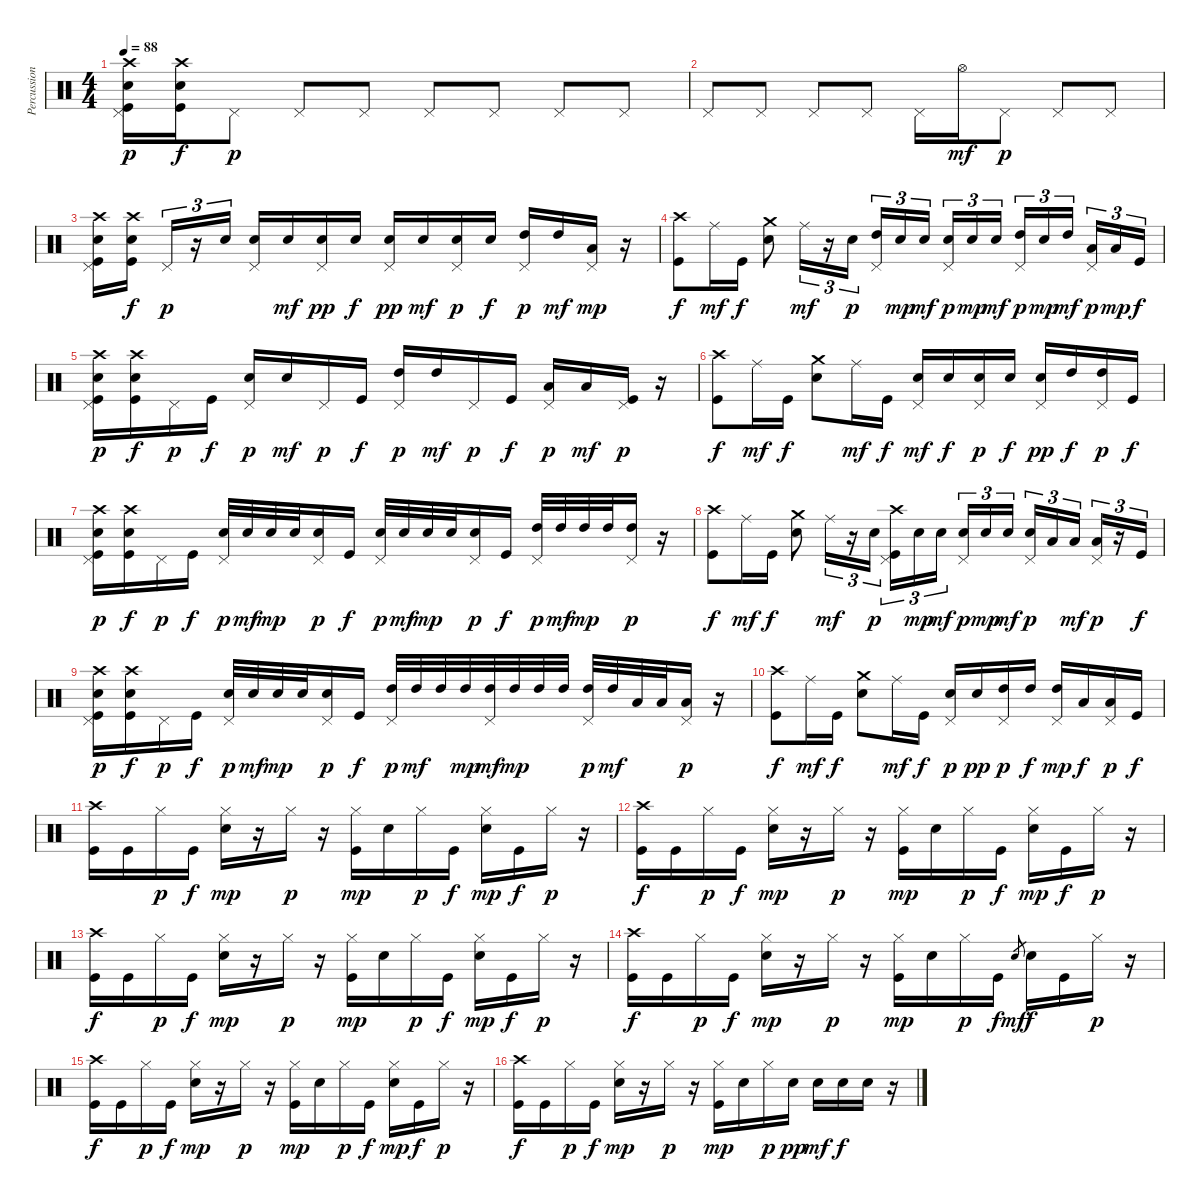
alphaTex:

\track ("Percussion" "Percussion") {instrument percussion}
\staff {score}
\articulation defaults
\ts (4 4)
\tempo 88
\clef neutral
\ks c
("Crash high (hit)" "Pedal Hi-Hat (hit)" "Snare (hit) 2" "Kick (hit)").16{dy p} ("Crash high (hit)" "Snare (hit) 2" "Kick (hit)").16{dy f} "Pedal Hi-Hat (hit)".8{dy p} "Pedal Hi-Hat (hit)".8 "Pedal Hi-Hat (hit)".8 "Pedal Hi-Hat (hit)".8 "Pedal Hi-Hat (hit)".8 "Pedal Hi-Hat (hit)".8 "Pedal Hi-Hat (hit)".8 |
"Pedal Hi-Hat (hit)".8 "Pedal Hi-Hat (hit)".8 "Pedal Hi-Hat (hit)".8 "Pedal Hi-Hat (hit)".8 "Pedal Hi-Hat (hit)".16 "Hi-Hat (open)".16{dy mf} "Pedal Hi-Hat (hit)".8{dy p} "Pedal Hi-Hat (hit)".8 "Pedal Hi-Hat (hit)".8 |
("Crash high (hit)" "Pedal Hi-Hat (hit)" "Snare (hit) 2" "Kick (hit)").16 ("Crash high (hit)" "Snare (hit) 2" "Kick (hit)").16{dy f} "Pedal Hi-Hat (hit)".16{tu (3 2) dy p} r.16{tu (3 2)} "Snare (hit) 2".16{tu (3 2)} ("Pedal Hi-Hat (hit)" "Snare (hit) 2").16 "Snare (hit) 2".16{dy mf} ("Pedal Hi-Hat (hit)" "Snare (hit) 2").16{dy pp} "Snare (hit) 2".16{dy f} ("Pedal Hi-Hat (hit)" "Snare (hit) 2").16{dy pp} "Snare (hit) 2".16{dy mf} ("Pedal Hi-Hat (hit)" "Snare (hit) 2").16{dy p} "Snare (hit) 2".16{dy f} ("Pedal Hi-Hat (hit)" "High Tom (hit)").16{dy p} "High Tom (hit)".16{dy mf} ("Pedal Hi-Hat (hit)" "Low Tom (hit)").16{dy mp} r.16 |
("Crash high (hit)" "Kick (hit)").8{dy f} "Ride (middle)".16{dy mf} "Kick (hit)".16{dy f} ("Crash medium (hit)" "Snare (hit) 2").8 "Ride (middle)".16{tu (3 2) dy mf} r.16{tu (3 2)} "Snare (hit) 2".16{tu (3 2) dy p} ("Pedal Hi-Hat (hit)" "High Tom (hit)").16{tu (3 2)} "Snare (hit) 2".16{tu (3 2) dy mp} "Snare (hit) 2".16{tu (3 2) dy mf} ("Pedal Hi-Hat (hit)" "Snare (hit) 2").16{tu (3 2) dy p} "Snare (hit) 2".16{tu (3 2) dy mp} "Snare (hit) 2".16{tu (3 2) dy mf} ("Pedal Hi-Hat (hit)" "High Tom (hit)").16{tu (3 2) dy p} "Snare (hit) 2".16{tu (3 2) dy mp} "High Tom (hit)".16{tu (3 2) dy mf} ("Pedal Hi-Hat (hit)" "Low Tom (hit)").16{tu (3 2) dy p} "Low Tom (hit)".16{tu (3 2) dy mp} "Kick (hit)".16{tu (3 2) dy f} |
("Crash high (hit)" "Pedal Hi-Hat (hit)" "Snare (hit) 2" "Kick (hit)").16{dy p} ("Crash high (hit)" "Snare (hit) 2" "Kick (hit)").16{dy f} "Pedal Hi-Hat (hit)".16{dy p} "Kick (hit)".16{dy f} ("Pedal Hi-Hat (hit)" "Snare (hit) 2").16{dy p} "Snare (hit) 2".16{dy mf} "Pedal Hi-Hat (hit)".16{dy p} "Kick (hit)".16{dy f} ("Pedal Hi-Hat (hit)" "High Tom (hit)").16{dy p} "High Tom (hit)".16{dy mf} "Pedal Hi-Hat (hit)".16{dy p} "Kick (hit)".16{dy f} ("Pedal Hi-Hat (hit)" "Low Tom (hit)").16{dy p} "Low Tom (hit)".16{dy mf} ("Pedal Hi-Hat (hit)" "Kick (hit)").16{dy p} r.16 |
("Crash high (hit)" "Kick (hit)").8{dy f} "Ride (middle)".16{dy mf} "Kick (hit)".16{dy f} ("Crash medium (hit)" "Snare (hit) 2").8 "Ride (middle)".16{dy mf} "Kick (hit)".16{dy f} ("Pedal Hi-Hat (hit)" "Snare (hit) 2").16{dy mf} "Snare (hit) 2".16{dy f} ("Pedal Hi-Hat (hit)" "Snare (hit) 2").16{dy p} "Snare (hit) 2".16{dy f} ("Pedal Hi-Hat (hit)" "Snare (hit) 2").16{dy pp} "High Tom (hit)".16{dy f} ("Pedal Hi-Hat (hit)" "High Tom (hit)").16{dy p} "Kick (hit)".16{dy f} |
("Crash high (hit)" "Pedal Hi-Hat (hit)" "Snare (hit) 2" "Kick (hit)").16{dy p} ("Crash high (hit)" "Snare (hit) 2" "Kick (hit)").16{dy f} "Pedal Hi-Hat (hit)".16{dy p} "Kick (hit)".16{dy f} ("Pedal Hi-Hat (hit)" "Snare (hit) 2").32{dy p} "Snare (hit) 2".32{dy mf} "Snare (hit) 2".32{dy mp} "Snare (hit) 2".32 ("Pedal Hi-Hat (hit)" "Snare (hit) 2").16{dy p} "Kick (hit)".16{dy f} ("Pedal Hi-Hat (hit)" "Snare (hit) 2").32{dy p} "Snare (hit) 2".32{dy mf} "Snare (hit) 2".32{dy mp} "Snare (hit) 2".32 ("Pedal Hi-Hat (hit)" "Snare (hit) 2").16{dy p} "Kick (hit)".16{dy f} ("Pedal Hi-Hat (hit)" "High Tom (hit)").32{dy p} "High Tom (hit)".32{dy mf} "High Tom (hit)".32{dy mp} "High Tom (hit)".32 ("Pedal Hi-Hat (hit)" "High Tom (hit)").16{dy p} r.16 |
("Crash high (hit)" "Kick (hit)").8{dy f} "Ride (middle)".16{dy mf} "Kick (hit)".16{dy f} ("Crash medium (hit)" "Snare (hit) 2").8 "Ride (middle)".16{tu (3 2) dy mf} r.16{tu (3 2)} "Snare (hit) 2".16{tu (3 2) dy p} ("Crash high (hit)" "Pedal Hi-Hat (hit)" "Kick (hit)").16{tu (3 2)} "Snare (hit) 2".16{tu (3 2) dy mp} "Snare (hit) 2".16{tu (3 2) dy mf} ("Pedal Hi-Hat (hit)" "Snare (hit) 2").16{tu (3 2) dy p} "Snare (hit) 2".16{tu (3 2) dy mp} "Snare (hit) 2".16{tu (3 2) dy mf} ("Pedal Hi-Hat (hit)" "Snare (hit) 2").16{tu (3 2) dy p} "Low Tom (hit)".16{tu (3 2)} "Low Tom (hit)".16{tu (3 2) dy mf} ("Pedal Hi-Hat (hit)" "Low Tom (hit)").16{tu (3 2) dy p} r.16{tu (3 2)} "Kick (hit)".16{tu (3 2) dy f} |
("Crash high (hit)" "Pedal Hi-Hat (hit)" "Snare (hit) 2" "Kick (hit)").16{dy p} ("Crash high (hit)" "Snare (hit) 2" "Kick (hit)").16{dy f} "Pedal Hi-Hat (hit)".16{dy p} "Kick (hit)".16{dy f} ("Pedal Hi-Hat (hit)" "Snare (hit) 2").32{dy p} "Snare (hit) 2".32{dy mf} "Snare (hit) 2".32{dy mp} "Snare (hit) 2".32 ("Pedal Hi-Hat (hit)" "Snare (hit) 2").16{dy p} "Kick (hit)".16{dy f} ("Pedal Hi-Hat (hit)" "High Tom (hit)").32{dy p} "High Tom (hit)".32{dy mf} "High Tom (hit)".32 "High Tom (hit)".32{dy mp} ("Pedal Hi-Hat (hit)" "High Tom (hit)").32{dy mf} "High Tom (hit)".32{dy mp} "High Tom (hit)".32 "High Tom (hit)".32 ("Pedal Hi-Hat (hit)" "High Tom (hit)").32{dy p} "High Tom (hit)".32{dy mf} "Low Tom (hit)".32 "Low Tom (hit)".32 ("Pedal Hi-Hat (hit)" "Low Tom (hit)").16{dy p} r.16 |
("Crash high (hit)" "Kick (hit)").8{dy f} "Ride (middle)".16{dy mf} "Kick (hit)".16{dy f} ("Crash medium (hit)" "Snare (hit) 2").8 "Ride (middle)".16{dy mf} "Kick (hit)".16{dy f} ("Pedal Hi-Hat (hit)" "Snare (hit) 2").16{dy p} "Snare (hit) 2".16{dy pp} ("Pedal Hi-Hat (hit)" "High Tom (hit)").16{dy p} "High Tom (hit)".16{dy f} ("Pedal Hi-Hat (hit)" "High Tom (hit)").16{dy mp} "Low Tom (hit)".16{dy f} ("Pedal Hi-Hat (hit)" "Low Tom (hit)").16{dy p} "Kick (hit)".16{dy f} |
("Crash high (hit)" "Kick (hit)").16 "Kick (hit)".16 "Hi-Hat (closed)".16{dy p} "Kick (hit)".16{dy f} ("Hi-Hat (closed)" "Snare (hit) 2").16{dy mp} r.16 "Hi-Hat (closed)".16{dy p} r.16 ("Hi-Hat (closed)" "Kick (hit)").16{dy mp} "Snare (hit) 2".16 "Hi-Hat (closed)".16{dy p} "Kick (hit)".16{dy f} ("Hi-Hat (closed)" "Snare (hit) 2").16{dy mp} "Kick (hit)".16{dy f} "Hi-Hat (closed)".16{dy p} r.16 |
("Crash high (hit)" "Kick (hit)").16{dy f} "Kick (hit)".16 "Hi-Hat (closed)".16{dy p} "Kick (hit)".16{dy f} ("Hi-Hat (closed)" "Snare (hit) 2").16{dy mp} r.16 "Hi-Hat (closed)".16{dy p} r.16 ("Hi-Hat (closed)" "Kick (hit)").16{dy mp} "Snare (hit) 2".16 "Hi-Hat (closed)".16{dy p} "Kick (hit)".16{dy f} ("Hi-Hat (closed)" "Snare (hit) 2").16{dy mp} "Kick (hit)".16{dy f} "Hi-Hat (closed)".16{dy p} r.16 |
("Crash high (hit)" "Kick (hit)").16{dy f} "Kick (hit)".16 "Hi-Hat (closed)".16{dy p} "Kick (hit)".16{dy f} ("Hi-Hat (closed)" "Snare (hit) 2").16{dy mp} r.16 "Hi-Hat (closed)".16{dy p} r.16 ("Hi-Hat (closed)" "Kick (hit)").16{dy mp} "Snare (hit) 2".16 "Hi-Hat (closed)".16{dy p} "Kick (hit)".16{dy f} ("Hi-Hat (closed)" "Snare (hit) 2").16{dy mp} "Kick (hit)".16{dy f} "Hi-Hat (closed)".16{dy p} r.16 |
("Crash high (hit)" "Kick (hit)").16{dy f} "Kick (hit)".16 "Hi-Hat (closed)".16{dy p} "Kick (hit)".16{dy f} ("Hi-Hat (closed)" "Snare (hit) 2").16{dy mp} r.16 "Hi-Hat (closed)".16{dy p} r.16 ("Hi-Hat (closed)" "Kick (hit)").16{dy mp} "Snare (hit) 2".16 "Hi-Hat (closed)".16{dy p} "Kick (hit)".16{dy f} "Snare (hit) 2".8{gr dy mf} "Snare (hit) 2".16{dy f} "Kick (hit)".16 "Hi-Hat (closed)".16{dy p} r.16 |
("Crash high (hit)" "Kick (hit)").16{dy f} "Kick (hit)".16 "Hi-Hat (closed)".16{dy p} "Kick (hit)".16{dy f} ("Hi-Hat (closed)" "Snare (hit) 2").16{dy mp} r.16 "Hi-Hat (closed)".16{dy p} r.16 ("Hi-Hat (closed)" "Kick (hit)").16{dy mp} "Snare (hit) 2".16 "Hi-Hat (closed)".16{dy p} "Kick (hit)".16{dy f} ("Hi-Hat (closed)" "Snare (hit) 2").16{dy mp} "Kick (hit)".16{dy f} "Hi-Hat (closed)".16{dy p} r.16 |
("Crash high (hit)" "Kick (hit)").16{dy f} "Kick (hit)".16 "Hi-Hat (closed)".16{dy p} "Kick (hit)".16{dy f} ("Hi-Hat (closed)" "Snare (hit) 2").16{dy mp} r.16 "Hi-Hat (closed)".16{dy p} r.16 ("Hi-Hat (closed)" "Kick (hit)").16{dy mp} "Snare (hit) 2".16 "Hi-Hat (closed)".16{dy p} "Snare (hit) 2".16{dy pp} "Snare (hit) 2".16{dy mf} "Snare (hit) 2".16{dy f} "Snare (hit) 2".16 r.16
